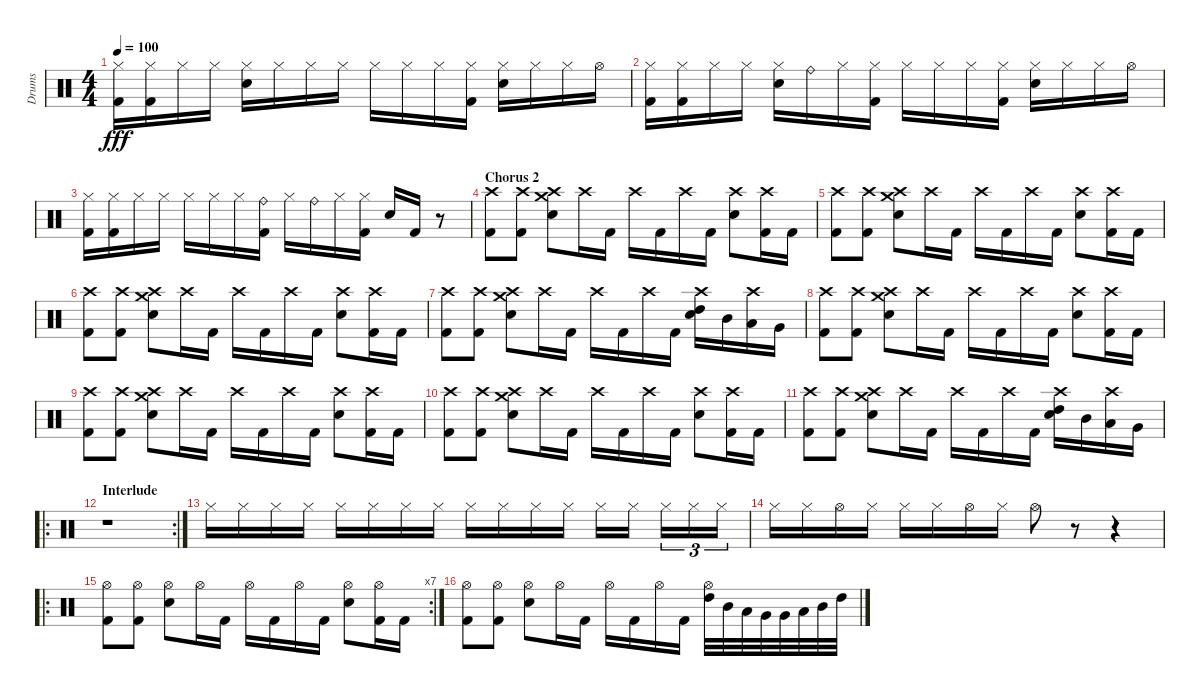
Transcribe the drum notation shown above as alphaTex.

\track ("Drums" "Drums") {instrument percussion}
\staff {score}
\articulation defaults
\ts (4 4)
\tempo 100
\clef neutral
\ks c
("Hi-Hat (closed)" "Kick (hit) 2").16{dy fff} ("Hi-Hat (closed)" "Kick (hit) 2").16 "Hi-Hat (closed)".16 "Hi-Hat (closed)".16 ("Hi-Hat (closed)" "Electric Snare (hit)").16 "Hi-Hat (closed)".16 "Hi-Hat (closed)".16 "Hi-Hat (closed)".16 "Hi-Hat (closed)".16 "Hi-Hat (closed)".16 "Hi-Hat (closed)".16 ("Hi-Hat (closed)" "Kick (hit) 2").16 ("Hi-Hat (closed)" "Electric Snare (hit)").16 "Hi-Hat (closed)".16 "Hi-Hat (closed)".16 "Hi-Hat (open)".16 |
("Hi-Hat (closed)" "Kick (hit) 2").16 ("Hi-Hat (closed)" "Kick (hit) 2").16 "Hi-Hat (closed)".16 "Hi-Hat (closed)".16 ("Hi-Hat (closed)" "Electric Snare (hit)").16 "Ride (bell)".16 "Hi-Hat (closed)".16 ("Hi-Hat (closed)" "Kick (hit) 2").16 "Hi-Hat (closed)".16 "Hi-Hat (closed)".16 "Hi-Hat (closed)".16 ("Hi-Hat (closed)" "Kick (hit) 2").16 ("Hi-Hat (closed)" "Electric Snare (hit)").16 "Hi-Hat (closed)".16 "Hi-Hat (closed)".16 "Hi-Hat (open)".16 |
("Hi-Hat (closed)" "Kick (hit) 2").16 ("Hi-Hat (closed)" "Kick (hit) 2").16 "Hi-Hat (closed)".16 "Hi-Hat (closed)".16 "Hi-Hat (closed)".16 "Hi-Hat (closed)".16 "Hi-Hat (closed)".16 ("Ride (bell)" "Kick (hit) 2").16 "Hi-Hat (closed)".16 "Ride (bell)".16 "Hi-Hat (closed)".16 ("Hi-Hat (closed)" "Kick (hit) 2").16 "Electric Snare (hit)".16 "Kick (hit) 2".16 r.8 |
\section ("" "Chorus 2")
("Crash high (hit)" "Kick (hit) 2").8 ("Crash high (hit)" "Kick (hit) 2").8 ("Crash high (hit)" "Crash medium (hit)" "Electric Snare (hit)").8 "Crash high (hit)".16 "Kick (hit) 2".16 "Crash high (hit)".16 "Kick (hit) 2".16 "Crash high (hit)".16 "Kick (hit) 2".16 ("Crash high (hit)" "Electric Snare (hit)").8 ("Crash high (hit)" "Kick (hit) 2").16 "Kick (hit) 2".16 |
("Crash high (hit)" "Kick (hit) 2").8 ("Crash high (hit)" "Kick (hit) 2").8 ("Crash high (hit)" "Crash medium (hit)" "Electric Snare (hit)").8 "Crash high (hit)".16 "Kick (hit) 2".16 "Crash high (hit)".16 "Kick (hit) 2".16 "Crash high (hit)".16 "Kick (hit) 2".16 ("Crash high (hit)" "Electric Snare (hit)").8 ("Crash high (hit)" "Kick (hit) 2").16 "Kick (hit) 2".16 |
("Crash high (hit)" "Kick (hit) 2").8 ("Crash high (hit)" "Kick (hit) 2").8 ("Crash high (hit)" "Crash medium (hit)" "Electric Snare (hit)").8 "Crash high (hit)".16 "Kick (hit) 2".16 "Crash high (hit)".16 "Kick (hit) 2".16 "Crash high (hit)".16 "Kick (hit) 2".16 ("Crash high (hit)" "Electric Snare (hit)").8 ("Crash high (hit)" "Kick (hit) 2").16 "Kick (hit) 2".16 |
("Crash high (hit)" "Kick (hit) 2").8 ("Crash high (hit)" "Kick (hit) 2").8 ("Crash high (hit)" "Crash medium (hit)" "Electric Snare (hit)").8 "Crash high (hit)".16 "Kick (hit) 2".16 "Crash high (hit)".16 "Kick (hit) 2".16 "Crash high (hit)".16 "Kick (hit) 2".16 ("Crash high (hit)" "High Tom (hit)" "Electric Snare (hit)").16 "Mid Tom (hit)".16 ("Crash high (hit)" "Low Tom (hit)").16 "Very Low Tom (hit)".16 |
("Crash high (hit)" "Kick (hit) 2").8 ("Crash high (hit)" "Kick (hit) 2").8 ("Crash high (hit)" "Crash medium (hit)" "Electric Snare (hit)").8 "Crash high (hit)".16 "Kick (hit) 2".16 "Crash high (hit)".16 "Kick (hit) 2".16 "Crash high (hit)".16 "Kick (hit) 2".16 ("Crash high (hit)" "Electric Snare (hit)").8 ("Crash high (hit)" "Kick (hit) 2").16 "Kick (hit) 2".16 |
("Crash high (hit)" "Kick (hit) 2").8 ("Crash high (hit)" "Kick (hit) 2").8 ("Crash high (hit)" "Crash medium (hit)" "Electric Snare (hit)").8 "Crash high (hit)".16 "Kick (hit) 2".16 "Crash high (hit)".16 "Kick (hit) 2".16 "Crash high (hit)".16 "Kick (hit) 2".16 ("Crash high (hit)" "Electric Snare (hit)").8 ("Crash high (hit)" "Kick (hit) 2").16 "Kick (hit) 2".16 |
("Crash high (hit)" "Kick (hit) 2").8 ("Crash high (hit)" "Kick (hit) 2").8 ("Crash high (hit)" "Crash medium (hit)" "Electric Snare (hit)").8 "Crash high (hit)".16 "Kick (hit) 2".16 "Crash high (hit)".16 "Kick (hit) 2".16 "Crash high (hit)".16 "Kick (hit) 2".16 ("Crash high (hit)" "Electric Snare (hit)").8 ("Crash high (hit)" "Kick (hit) 2").16 "Kick (hit) 2".16 |
("Crash high (hit)" "Kick (hit) 2").8 ("Crash high (hit)" "Kick (hit) 2").8 ("Crash high (hit)" "Crash medium (hit)" "Electric Snare (hit)").8 "Crash high (hit)".16 "Kick (hit) 2".16 "Crash high (hit)".16 "Kick (hit) 2".16 "Crash high (hit)".16 "Kick (hit) 2".16 ("Crash high (hit)" "High Tom (hit)" "Electric Snare (hit)").16 "Mid Tom (hit)".16 ("Crash high (hit)" "Low Tom (hit)").16 "Very Low Tom (hit)".16 |
\ro
\rc 2
\section ("" "Interlude")
r.1 |
"Hi-Hat (closed)".16 "Hi-Hat (closed)".16 "Hi-Hat (closed)".16 "Hi-Hat (closed)".16 "Hi-Hat (closed)".16 "Hi-Hat (closed)".16 "Hi-Hat (closed)".16 "Hi-Hat (closed)".16 "Hi-Hat (closed)".16 "Hi-Hat (closed)".16 "Hi-Hat (closed)".16 "Hi-Hat (closed)".16 "Hi-Hat (closed)".16 "Hi-Hat (closed)".16 "Hi-Hat (closed)".16{tu (3 2)} "Hi-Hat (closed)".16{tu (3 2)} "Hi-Hat (closed)".16{tu (3 2)} |
"Hi-Hat (closed)".16 "Hi-Hat (closed)".16 "Hi-Hat (open)".16 "Hi-Hat (closed)".16 "Hi-Hat (closed)".16 "Hi-Hat (closed)".16 "Hi-Hat (open)".16 "Hi-Hat (closed)".16 "Hi-Hat (open)".8 r.8 r.4 |
\ro
\rc 7
("Hi-Hat (open)" "Kick (hit) 2").8 ("Hi-Hat (open)" "Kick (hit) 2").8 ("Hi-Hat (open)" "Electric Snare (hit)").8 "Hi-Hat (open)".16 "Kick (hit) 2".16 "Hi-Hat (open)".16 "Kick (hit) 2".16 "Hi-Hat (open)".16 "Kick (hit) 2".16 ("Hi-Hat (open)" "Electric Snare (hit)").8 ("Hi-Hat (open)" "Kick (hit) 2").16 "Kick (hit) 2".16 |
("Hi-Hat (open)" "Kick (hit) 2").8 ("Hi-Hat (open)" "Kick (hit) 2").8 ("Hi-Hat (open)" "Electric Snare (hit)").8 "Hi-Hat (open)".16 "Kick (hit) 2".16 "Hi-Hat (open)".16 "Kick (hit) 2".16 "Hi-Hat (open)".16 "Kick (hit) 2".16 ("High Tom (hit)" "Hi-Hat (open)").32 "Mid Tom (hit)".32 "Low Tom (hit)".32 "Very Low Tom (hit)".32 "Very Low Tom (hit)".32 "Low Tom (hit)".32 "Mid Tom (hit)".32 "High Tom (hit)".32
